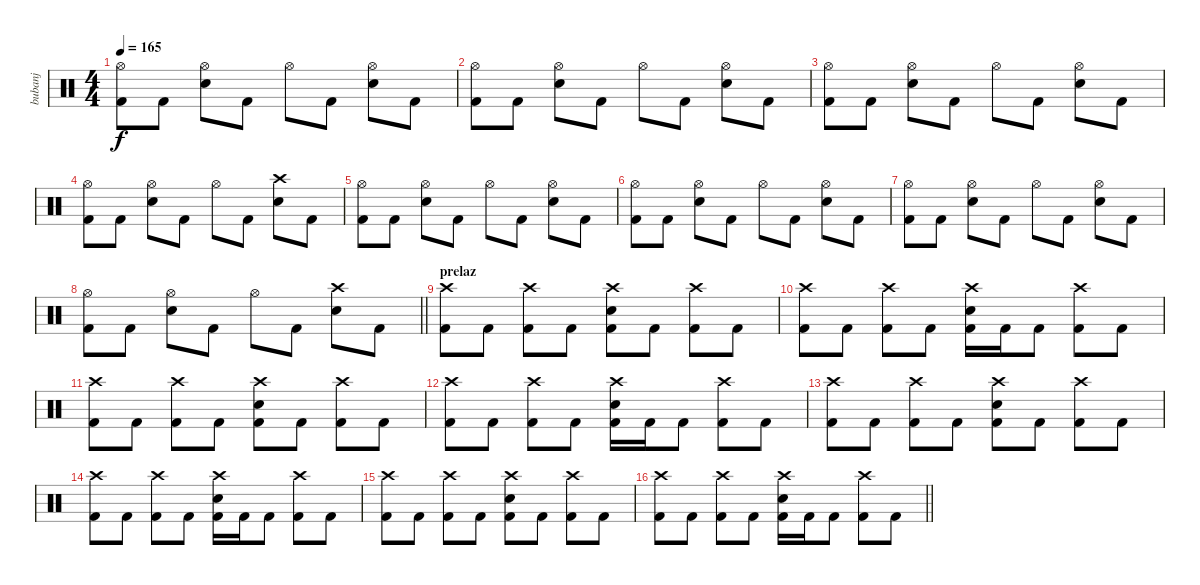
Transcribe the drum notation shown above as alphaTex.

\track ("bubanj" "bubanj") {instrument percussion}
\staff {score}
\articulation defaults
\ts (4 4)
\tempo 165
\clef neutral
\ks c
("Hi-Hat (open)" "Kick (hit) 2").8{dy f} "Kick (hit) 2".8 ("Hi-Hat (open)" "Electric Snare (hit)").8 "Kick (hit) 2".8 "Hi-Hat (open)".8 "Kick (hit) 2".8 ("Hi-Hat (open)" "Electric Snare (hit)").8 "Kick (hit) 2".8 |
("Hi-Hat (open)" "Kick (hit) 2").8 "Kick (hit) 2".8 ("Hi-Hat (open)" "Electric Snare (hit)").8 "Kick (hit) 2".8 "Hi-Hat (open)".8 "Kick (hit) 2".8 ("Hi-Hat (open)" "Electric Snare (hit)").8 "Kick (hit) 2".8 |
("Hi-Hat (open)" "Kick (hit) 2").8 "Kick (hit) 2".8 ("Hi-Hat (open)" "Electric Snare (hit)").8 "Kick (hit) 2".8 "Hi-Hat (open)".8 "Kick (hit) 2".8 ("Hi-Hat (open)" "Electric Snare (hit)").8 "Kick (hit) 2".8 |
("Hi-Hat (open)" "Kick (hit) 2").8 "Kick (hit) 2".8 ("Hi-Hat (open)" "Electric Snare (hit)").8 "Kick (hit) 2".8 "Hi-Hat (open)".8 "Kick (hit) 2".8 ("Crash high (hit)" "Electric Snare (hit)").8 "Kick (hit) 2".8 |
("Hi-Hat (open)" "Kick (hit) 2").8 "Kick (hit) 2".8 ("Hi-Hat (open)" "Electric Snare (hit)").8 "Kick (hit) 2".8 "Hi-Hat (open)".8 "Kick (hit) 2".8 ("Hi-Hat (open)" "Electric Snare (hit)").8 "Kick (hit) 2".8 |
("Hi-Hat (open)" "Kick (hit) 2").8 "Kick (hit) 2".8 ("Hi-Hat (open)" "Electric Snare (hit)").8 "Kick (hit) 2".8 "Hi-Hat (open)".8 "Kick (hit) 2".8 ("Hi-Hat (open)" "Electric Snare (hit)").8 "Kick (hit) 2".8 |
("Hi-Hat (open)" "Kick (hit) 2").8 "Kick (hit) 2".8 ("Hi-Hat (open)" "Electric Snare (hit)").8 "Kick (hit) 2".8 "Hi-Hat (open)".8 "Kick (hit) 2".8 ("Hi-Hat (open)" "Electric Snare (hit)").8 "Kick (hit) 2".8 |
\barLineRight lightlight
("Hi-Hat (open)" "Kick (hit) 2").8 "Kick (hit) 2".8 ("Hi-Hat (open)" "Electric Snare (hit)").8 "Kick (hit) 2".8 "Hi-Hat (open)".8 "Kick (hit) 2".8 ("Crash high (hit)" "Electric Snare (hit)").8 "Kick (hit) 2".8 |
\section ("" "prelaz")
("Crash high (hit)" "Kick (hit) 2").8 "Kick (hit) 2".8 ("Crash high (hit)" "Kick (hit) 2").8 "Kick (hit) 2".8 ("Crash high (hit)" "Electric Snare (hit)" "Kick (hit) 2").8 "Kick (hit) 2".8 ("Crash high (hit)" "Kick (hit) 2").8 "Kick (hit) 2".8 |
("Crash high (hit)" "Kick (hit) 2").8 "Kick (hit) 2".8 ("Crash high (hit)" "Kick (hit) 2").8 "Kick (hit) 2".8 ("Crash high (hit)" "Electric Snare (hit)" "Kick (hit) 2").16 "Kick (hit) 2".16 "Kick (hit) 2".8 ("Crash high (hit)" "Kick (hit) 2").8 "Kick (hit) 2".8 |
("Crash high (hit)" "Kick (hit) 2").8 "Kick (hit) 2".8 ("Crash high (hit)" "Kick (hit) 2").8 "Kick (hit) 2".8 ("Crash high (hit)" "Electric Snare (hit)" "Kick (hit) 2").8 "Kick (hit) 2".8 ("Crash high (hit)" "Kick (hit) 2").8 "Kick (hit) 2".8 |
("Crash high (hit)" "Kick (hit) 2").8 "Kick (hit) 2".8 ("Crash high (hit)" "Kick (hit) 2").8 "Kick (hit) 2".8 ("Crash high (hit)" "Electric Snare (hit)" "Kick (hit) 2").16 "Kick (hit) 2".16 "Kick (hit) 2".8 ("Crash high (hit)" "Kick (hit) 2").8 "Kick (hit) 2".8 |
("Crash high (hit)" "Kick (hit) 2").8 "Kick (hit) 2".8 ("Crash high (hit)" "Kick (hit) 2").8 "Kick (hit) 2".8 ("Crash high (hit)" "Electric Snare (hit)" "Kick (hit) 2").8 "Kick (hit) 2".8 ("Crash high (hit)" "Kick (hit) 2").8 "Kick (hit) 2".8 |
("Crash high (hit)" "Kick (hit) 2").8 "Kick (hit) 2".8 ("Crash high (hit)" "Kick (hit) 2").8 "Kick (hit) 2".8 ("Crash high (hit)" "Electric Snare (hit)" "Kick (hit) 2").16 "Kick (hit) 2".16 "Kick (hit) 2".8 ("Crash high (hit)" "Kick (hit) 2").8 "Kick (hit) 2".8 |
("Crash high (hit)" "Kick (hit) 2").8 "Kick (hit) 2".8 ("Crash high (hit)" "Kick (hit) 2").8 "Kick (hit) 2".8 ("Crash high (hit)" "Electric Snare (hit)" "Kick (hit) 2").8 "Kick (hit) 2".8 ("Crash high (hit)" "Kick (hit) 2").8 "Kick (hit) 2".8 |
\barLineRight lightlight
("Crash high (hit)" "Kick (hit) 2").8 "Kick (hit) 2".8 ("Crash high (hit)" "Kick (hit) 2").8 "Kick (hit) 2".8 ("Crash high (hit)" "Electric Snare (hit)" "Kick (hit) 2").16 "Kick (hit) 2".16 "Kick (hit) 2".8 ("Crash high (hit)" "Kick (hit) 2").8 "Kick (hit) 2".8
